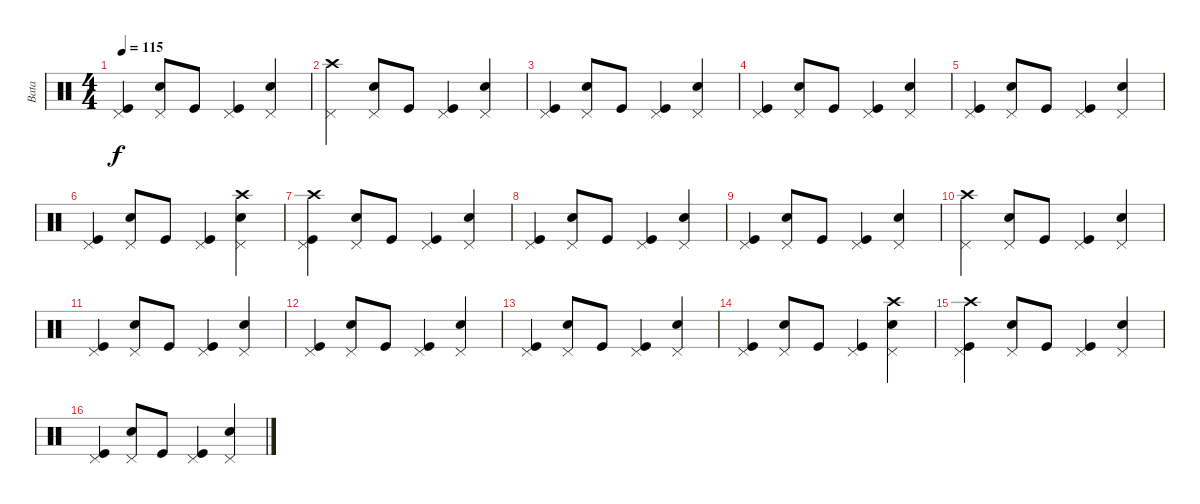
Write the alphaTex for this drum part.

\track ("Bata" "Bata") {instrument percussion}
\staff {score}
\articulation defaults
\ts (4 4)
\tempo 115
\clef neutral
\ks c
("Kick (hit)" "Pedal Hi-Hat (hit)").4{dy f} ("Snare (hit) 2" "Pedal Hi-Hat (hit)").8 "Kick (hit)".8 ("Kick (hit)" "Pedal Hi-Hat (hit)").4 ("Snare (hit) 2" "Pedal Hi-Hat (hit)").4 |
("Crash high (hit)" "Pedal Hi-Hat (hit)").4 ("Snare (hit) 2" "Pedal Hi-Hat (hit)").8 "Kick (hit)".8 ("Kick (hit)" "Pedal Hi-Hat (hit)").4 ("Snare (hit) 2" "Pedal Hi-Hat (hit)").4 |
("Kick (hit)" "Pedal Hi-Hat (hit)").4 ("Snare (hit) 2" "Pedal Hi-Hat (hit)").8 "Kick (hit)".8 ("Kick (hit)" "Pedal Hi-Hat (hit)").4 ("Snare (hit) 2" "Pedal Hi-Hat (hit)").4 |
("Kick (hit)" "Pedal Hi-Hat (hit)").4 ("Snare (hit) 2" "Pedal Hi-Hat (hit)").8 "Kick (hit)".8 ("Kick (hit)" "Pedal Hi-Hat (hit)").4 ("Snare (hit) 2" "Pedal Hi-Hat (hit)").4 |
("Kick (hit)" "Pedal Hi-Hat (hit)").4 ("Snare (hit) 2" "Pedal Hi-Hat (hit)").8 "Kick (hit)".8 ("Kick (hit)" "Pedal Hi-Hat (hit)").4 ("Snare (hit) 2" "Pedal Hi-Hat (hit)").4 |
("Kick (hit)" "Pedal Hi-Hat (hit)").4 ("Snare (hit) 2" "Pedal Hi-Hat (hit)").8 "Kick (hit)".8 ("Kick (hit)" "Pedal Hi-Hat (hit)").4 ("Snare (hit) 2" "Crash high (hit)" "Pedal Hi-Hat (hit)").4 |
("Kick (hit)" "Crash high (hit)" "Pedal Hi-Hat (hit)").4 ("Snare (hit) 2" "Pedal Hi-Hat (hit)").8 "Kick (hit)".8 ("Kick (hit)" "Pedal Hi-Hat (hit)").4 ("Snare (hit) 2" "Pedal Hi-Hat (hit)").4 |
("Kick (hit)" "Pedal Hi-Hat (hit)").4 ("Snare (hit) 2" "Pedal Hi-Hat (hit)").8 "Kick (hit)".8 ("Kick (hit)" "Pedal Hi-Hat (hit)").4 ("Snare (hit) 2" "Pedal Hi-Hat (hit)").4 |
("Kick (hit)" "Pedal Hi-Hat (hit)").4 ("Snare (hit) 2" "Pedal Hi-Hat (hit)").8 "Kick (hit)".8 ("Kick (hit)" "Pedal Hi-Hat (hit)").4 ("Snare (hit) 2" "Pedal Hi-Hat (hit)").4 |
("Crash high (hit)" "Pedal Hi-Hat (hit)").4 ("Snare (hit) 2" "Pedal Hi-Hat (hit)").8 "Kick (hit)".8 ("Kick (hit)" "Pedal Hi-Hat (hit)").4 ("Snare (hit) 2" "Pedal Hi-Hat (hit)").4 |
("Kick (hit)" "Pedal Hi-Hat (hit)").4 ("Snare (hit) 2" "Pedal Hi-Hat (hit)").8 "Kick (hit)".8 ("Kick (hit)" "Pedal Hi-Hat (hit)").4 ("Snare (hit) 2" "Pedal Hi-Hat (hit)").4 |
("Kick (hit)" "Pedal Hi-Hat (hit)").4 ("Snare (hit) 2" "Pedal Hi-Hat (hit)").8 "Kick (hit)".8 ("Kick (hit)" "Pedal Hi-Hat (hit)").4 ("Snare (hit) 2" "Pedal Hi-Hat (hit)").4 |
("Kick (hit)" "Pedal Hi-Hat (hit)").4 ("Snare (hit) 2" "Pedal Hi-Hat (hit)").8 "Kick (hit)".8 ("Kick (hit)" "Pedal Hi-Hat (hit)").4 ("Snare (hit) 2" "Pedal Hi-Hat (hit)").4 |
("Kick (hit)" "Pedal Hi-Hat (hit)").4 ("Snare (hit) 2" "Pedal Hi-Hat (hit)").8 "Kick (hit)".8 ("Kick (hit)" "Pedal Hi-Hat (hit)").4 ("Snare (hit) 2" "Crash high (hit)" "Pedal Hi-Hat (hit)").4 |
("Kick (hit)" "Crash high (hit)" "Pedal Hi-Hat (hit)").4 ("Snare (hit) 2" "Pedal Hi-Hat (hit)").8 "Kick (hit)".8 ("Kick (hit)" "Pedal Hi-Hat (hit)").4 ("Snare (hit) 2" "Pedal Hi-Hat (hit)").4 |
("Kick (hit)" "Pedal Hi-Hat (hit)").4 ("Snare (hit) 2" "Pedal Hi-Hat (hit)").8 "Kick (hit)".8 ("Kick (hit)" "Pedal Hi-Hat (hit)").4 ("Snare (hit) 2" "Pedal Hi-Hat (hit)").4
